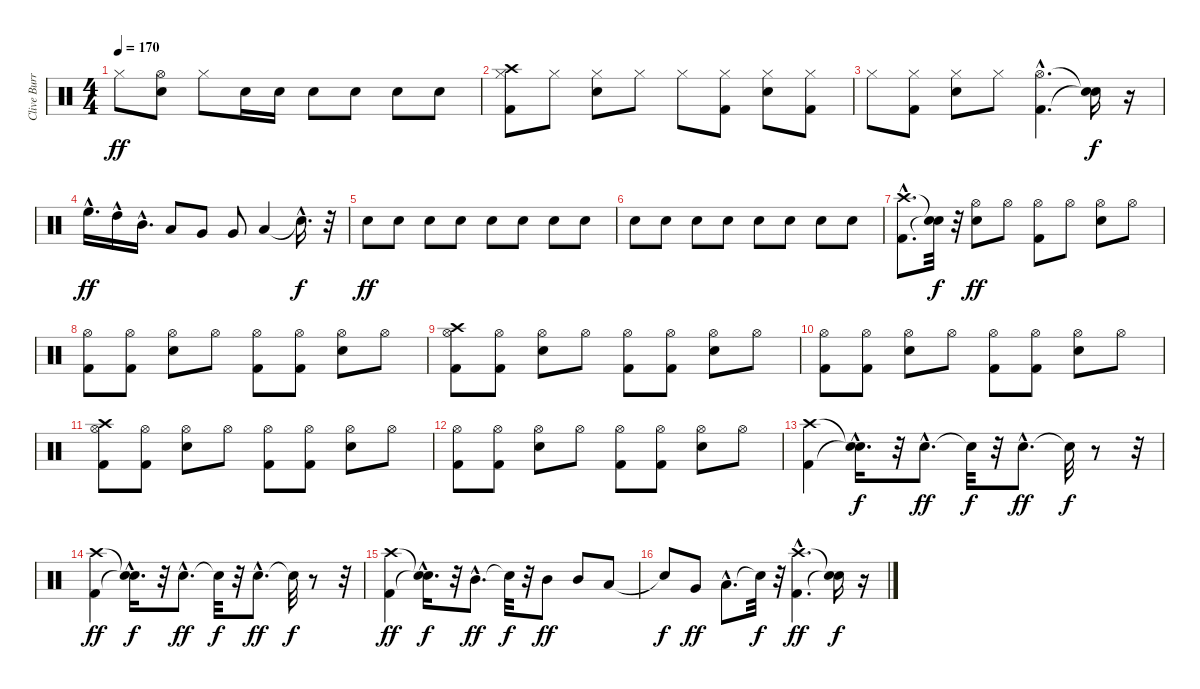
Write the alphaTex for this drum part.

\track ("Clive Burr" "Clive Burr") {instrument percussion}
\staff {score}
\articulation defaults
\ts (4 4)
\tempo 170
\clef neutral
\ks c "Hi-Hat (closed)".8{dy ff}
("Snare (hit) 2" "Hi-Hat (open)").8 "Hi-Hat (closed)".8 "Snare (hit) 2".16 "Snare (hit) 2".16 "Snare (hit) 2".8 "Snare (hit) 2".8 "Snare (hit) 2".8 "Snare (hit) 2".8 |
("Kick (hit) 2" "Hi-Hat (closed)" "Crash high (hit)").8 "Hi-Hat (closed)".8 ("Snare (hit) 2" "Hi-Hat (closed)").8 "Hi-Hat (closed)".8 "Hi-Hat (closed)".8 ("Kick (hit) 2" "Hi-Hat (closed)").8 ("Snare (hit) 2" "Hi-Hat (closed)").8 ("Kick (hit) 2" "Hi-Hat (closed)").8 |
"Hi-Hat (closed)".8 ("Kick (hit) 2" "Hi-Hat (closed)").8 ("Snare (hit) 2" "Hi-Hat (closed)").8 "Hi-Hat (closed)".8 ("Kick (hit) 2"{hac} "Hi-Hat (open)"{hac}).4{d} ("Snare (hit)"{t} "Snare (hit)"{t}).16{dy f} r.16 |
"High Floor Tom (hit)"{hac}.16{d dy ff} "High Tom (hit)"{hac}.16 "Mid Tom (hit)"{hac}.16{d} "Low Tom (hit)".8 "Very Low Tom (hit)".8 "Very Low Tom (hit)".8 "Low Floor Tom (hit)".4 "Snare (hit)"{hac t}.16{d dy f} r.32 |
"Snare (hit) 2".8{dy ff} "Snare (hit) 2".8 "Snare (hit) 2".8 "Snare (hit) 2".8 "Snare (hit) 2".8 "Snare (hit) 2".8 "Snare (hit) 2".8 "Snare (hit) 2".8 |
"Snare (hit) 2".8 "Snare (hit) 2".8 "Snare (hit) 2".8 "Snare (hit) 2".8 "Snare (hit) 2".8 "Snare (hit) 2".8 "Snare (hit) 2".8 "Snare (hit) 2".8 |
("Kick (hit) 2"{hac} "Crash high (hit)"{hac}).8{d} ("Snare (hit)"{t} "Snare (hit)"{t}).32{dy f} r.32 ("Snare (hit) 2" "Hi-Hat (open)").8{dy ff} "Hi-Hat (open)".8 ("Kick (hit) 2" "Hi-Hat (open)").8 "Hi-Hat (open)".8 ("Snare (hit) 2" "Hi-Hat (open)").8 "Hi-Hat (open)".8 |
("Kick (hit) 2" "Hi-Hat (open)").8 ("Kick (hit) 2" "Hi-Hat (open)").8 ("Snare (hit) 2" "Hi-Hat (open)").8 "Hi-Hat (open)".8 ("Kick (hit) 2" "Hi-Hat (open)").8 ("Kick (hit) 2" "Hi-Hat (open)").8 ("Snare (hit) 2" "Hi-Hat (open)").8 "Hi-Hat (open)".8 |
("Kick (hit) 2" "Hi-Hat (open)" "Crash high (hit)").8 ("Kick (hit) 2" "Hi-Hat (open)").8 ("Snare (hit) 2" "Hi-Hat (open)").8 "Hi-Hat (open)".8 ("Kick (hit) 2" "Hi-Hat (open)").8 ("Kick (hit) 2" "Hi-Hat (open)").8 ("Snare (hit) 2" "Hi-Hat (open)").8 "Hi-Hat (open)".8 |
("Kick (hit) 2" "Hi-Hat (open)").8 ("Kick (hit) 2" "Hi-Hat (open)").8 ("Snare (hit) 2" "Hi-Hat (open)").8 "Hi-Hat (open)".8 ("Kick (hit) 2" "Hi-Hat (open)").8 ("Kick (hit) 2" "Hi-Hat (open)").8 ("Snare (hit) 2" "Hi-Hat (open)").8 "Hi-Hat (open)".8 |
("Kick (hit) 2" "Hi-Hat (open)" "Crash high (hit)").8 ("Kick (hit) 2" "Hi-Hat (open)").8 ("Snare (hit) 2" "Hi-Hat (open)").8 "Hi-Hat (open)".8 ("Kick (hit) 2" "Hi-Hat (open)").8 ("Kick (hit) 2" "Hi-Hat (open)").8 ("Snare (hit) 2" "Hi-Hat (open)").8 "Hi-Hat (open)".8 |
("Kick (hit) 2" "Hi-Hat (open)").8 ("Kick (hit) 2" "Hi-Hat (open)").8 ("Snare (hit) 2" "Hi-Hat (open)").8 "Hi-Hat (open)".8 ("Kick (hit) 2" "Hi-Hat (open)").8 ("Kick (hit) 2" "Hi-Hat (open)").8 ("Snare (hit) 2" "Hi-Hat (open)").8 "Hi-Hat (open)".8 |
("Kick (hit) 2" "Crash high (hit)").4 ("Snare (hit)"{hac t} "Snare (hit)"{hac t}).16{d dy f} r.32 "Snare (hit) 2"{hac}.8{d dy ff} "Snare (hit)"{t}.32{dy f} r.32 "Snare (hit) 2"{hac}.8{d dy ff} "Snare (hit)"{t}.32{dy f} r.8 r.32 |
("Kick (hit) 2" "Crash high (hit)").4{dy ff} ("Snare (hit)"{hac t} "Snare (hit)"{hac t}).16{d dy f} r.32 "Snare (hit) 2"{hac}.8{d dy ff} "Snare (hit)"{t}.32{dy f} r.32 "Snare (hit) 2"{hac}.8{d dy ff} "Snare (hit)"{t}.32{dy f} r.8 r.32 |
("Kick (hit) 2" "Crash high (hit)").4{dy ff} ("Snare (hit)"{hac t} "Snare (hit)"{hac t}).16{d dy f} r.32 "Mid Tom (hit)"{hac}.8{d dy ff} "Snare (hit)"{t}.32{dy f} r.32 "Mid Tom (hit)".8{dy ff} "Mid Tom (hit)".8 "Low Tom (hit)".8 |
"Snare (hit)"{t}.8{dy f} "Very Low Tom (hit)".8{dy ff} "Low Floor Tom (hit)"{hac}.8{d} "Snare (hit)"{t}.32{dy f} r.32 ("Kick (hit) 2"{hac} "Crash high (hit)"{hac}).4{d dy ff} ("Snare (hit)"{t} "Snare (hit)"{t}).16{dy f} r.16
